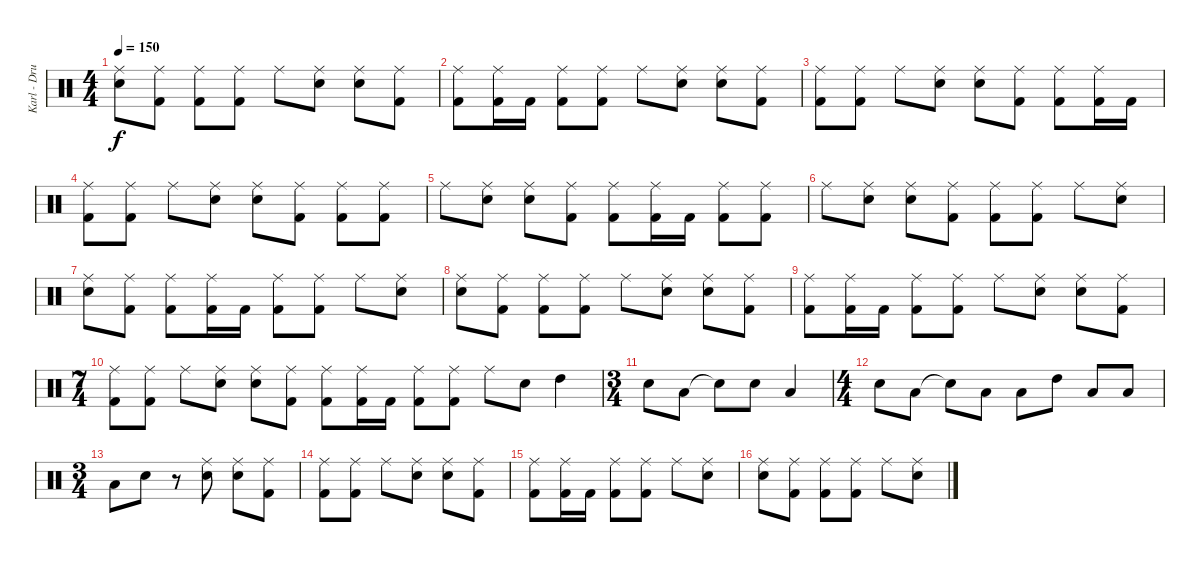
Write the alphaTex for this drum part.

\track ("Karl - Drums" "Karl - Dru") {instrument percussion}
\staff {score}
\articulation defaults
\ts (4 4)
\tempo 150
\clef neutral
\ks c
("Ride (middle)" "Snare (hit) 2").8{dy f} ("Ride (middle)" "Kick (hit) 2").8 ("Ride (middle)" "Kick (hit) 2").8 ("Ride (middle)" "Kick (hit) 2").8 "Ride (middle)".8 ("Ride (middle)" "Snare (hit) 2").8 ("Ride (middle)" "Snare (hit) 2").8 ("Ride (middle)" "Kick (hit) 2").8 |
("Ride (middle)" "Kick (hit) 2").8 ("Ride (middle)" "Kick (hit) 2").16 "Kick (hit) 2".16 ("Ride (middle)" "Kick (hit) 2").8 ("Ride (middle)" "Kick (hit) 2").8 "Ride (middle)".8 ("Ride (middle)" "Snare (hit) 2").8 ("Ride (middle)" "Snare (hit) 2").8 ("Ride (middle)" "Kick (hit) 2").8 |
("Ride (middle)" "Kick (hit) 2").8 ("Ride (middle)" "Kick (hit) 2").8 "Ride (middle)".8 ("Ride (middle)" "Snare (hit) 2").8 ("Ride (middle)" "Snare (hit) 2").8 ("Ride (middle)" "Kick (hit) 2").8 ("Ride (middle)" "Kick (hit) 2").8 ("Ride (middle)" "Kick (hit) 2").16 "Kick (hit) 2".16 |
("Ride (middle)" "Kick (hit) 2").8 ("Ride (middle)" "Kick (hit) 2").8 "Ride (middle)".8 ("Ride (middle)" "Snare (hit) 2").8 ("Ride (middle)" "Snare (hit) 2").8 ("Ride (middle)" "Kick (hit) 2").8 ("Ride (middle)" "Kick (hit) 2").8 ("Ride (middle)" "Kick (hit) 2").8 |
"Ride (middle)".8 ("Ride (middle)" "Snare (hit) 2").8 ("Ride (middle)" "Snare (hit) 2").8 ("Ride (middle)" "Kick (hit) 2").8 ("Ride (middle)" "Kick (hit) 2").8 ("Ride (middle)" "Kick (hit) 2").16 "Kick (hit) 2".16 ("Ride (middle)" "Kick (hit) 2").8 ("Ride (middle)" "Kick (hit) 2").8 |
"Ride (middle)".8 ("Ride (middle)" "Snare (hit) 2").8 ("Ride (middle)" "Snare (hit) 2").8 ("Ride (middle)" "Kick (hit) 2").8 ("Ride (middle)" "Kick (hit) 2").8 ("Ride (middle)" "Kick (hit) 2").8 "Ride (middle)".8 ("Ride (middle)" "Snare (hit) 2").8 |
("Ride (middle)" "Snare (hit) 2").8 ("Ride (middle)" "Kick (hit) 2").8 ("Ride (middle)" "Kick (hit) 2").8 ("Ride (middle)" "Kick (hit) 2").16 "Kick (hit) 2".16 ("Ride (middle)" "Kick (hit) 2").8 ("Ride (middle)" "Kick (hit) 2").8 "Ride (middle)".8 ("Ride (middle)" "Snare (hit) 2").8 |
("Ride (middle)" "Snare (hit) 2").8 ("Ride (middle)" "Kick (hit) 2").8 ("Ride (middle)" "Kick (hit) 2").8 ("Ride (middle)" "Kick (hit) 2").8 "Ride (middle)".8 ("Ride (middle)" "Snare (hit) 2").8 ("Ride (middle)" "Snare (hit) 2").8 ("Ride (middle)" "Kick (hit) 2").8 |
("Ride (middle)" "Kick (hit) 2").8 ("Ride (middle)" "Kick (hit) 2").16 "Kick (hit) 2".16 ("Ride (middle)" "Kick (hit) 2").8 ("Ride (middle)" "Kick (hit) 2").8 "Ride (middle)".8 ("Ride (middle)" "Snare (hit) 2").8 ("Ride (middle)" "Snare (hit) 2").8 ("Ride (middle)" "Kick (hit) 2").8 |
\ts (7 4)
("Ride (middle)" "Kick (hit) 2").8 ("Ride (middle)" "Kick (hit) 2").8 "Ride (middle)".8 ("Ride (middle)" "Snare (hit) 2").8 ("Ride (middle)" "Snare (hit) 2").8 ("Ride (middle)" "Kick (hit) 2").8 ("Ride (middle)" "Kick (hit) 2").8 ("Ride (middle)" "Kick (hit) 2").16 "Kick (hit) 2".16 ("Ride (middle)" "Kick (hit) 2").8 ("Ride (middle)" "Kick (hit) 2").8 "Ride (middle)".8 "Snare (hit) 2".8 "High Tom (hit)".4 |
\ts (3 4)
"Snare (hit) 2".8 "Low Tom (hit)".8 "Snare (hit)"{t}.8 "Snare (hit) 2".8 "Low Floor Tom (hit)".4 |
\ts (4 4)
"Snare (hit) 2".8 "Low Tom (hit)".8 "Snare (hit)"{t}.8 "Low Floor Tom (hit)".8 "Low Tom (hit)".8 "High Tom (hit)".8 "Low Tom (hit)".8 "Low Floor Tom (hit)".8 |
\ts (3 4)
"Low Tom (hit)".8 "Snare (hit) 2".8 r.8 ("Ride (middle)" "Snare (hit) 2").8 ("Ride (middle)" "Snare (hit) 2").8 ("Ride (middle)" "Kick (hit) 2").8 |
("Ride (middle)" "Kick (hit) 2").8 ("Ride (middle)" "Kick (hit) 2").8 "Ride (middle)".8 ("Ride (middle)" "Snare (hit) 2").8 ("Ride (middle)" "Snare (hit) 2").8 ("Ride (middle)" "Kick (hit) 2").8 |
("Ride (middle)" "Kick (hit) 2").8 ("Ride (middle)" "Kick (hit) 2").16 "Kick (hit) 2".16 ("Ride (middle)" "Kick (hit) 2").8 ("Ride (middle)" "Kick (hit) 2").8 "Ride (middle)".8 ("Ride (middle)" "Snare (hit) 2").8 |
("Ride (middle)" "Snare (hit) 2").8 ("Ride (middle)" "Kick (hit) 2").8 ("Ride (middle)" "Kick (hit) 2").8 ("Ride (middle)" "Kick (hit) 2").8 "Ride (middle)".8 ("Ride (middle)" "Snare (hit) 2").8
